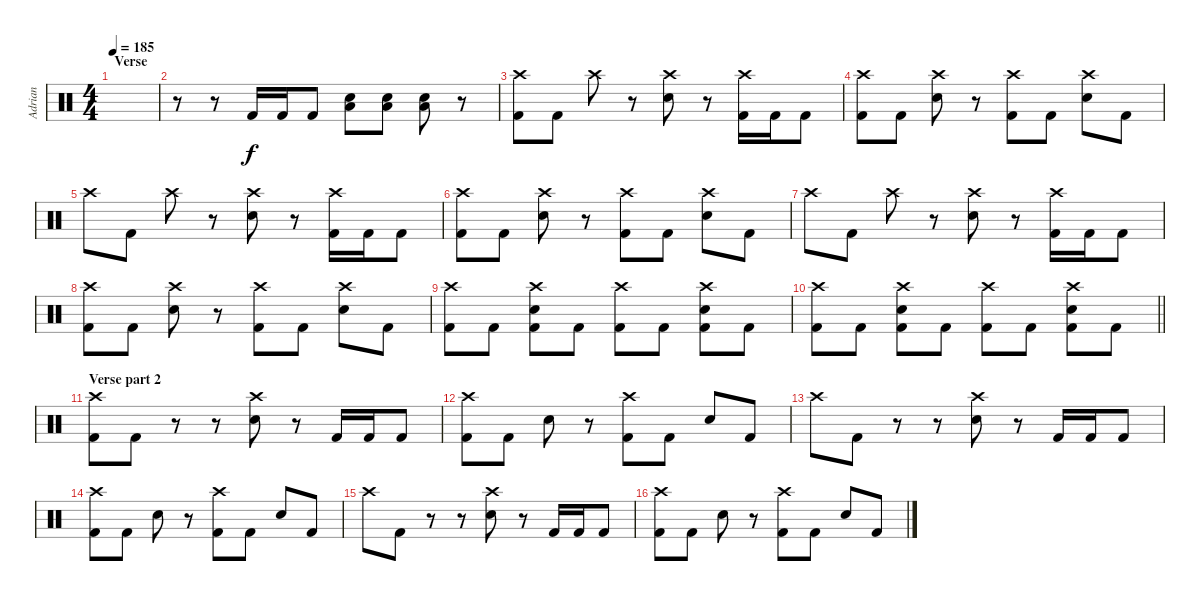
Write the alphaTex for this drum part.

\track ("Adrian" "Adrian") {instrument percussion}
\staff {score}
\articulation defaults
\ts (4 4)
\section ("" "Verse")
\tempo 185
\clef neutral
\ks c
|
r.8 r.8 "Kick (hit) 2".16 "Kick (hit) 2".16 "Kick (hit) 2".8 ("Low Floor Tom (hit)" "Snare (hit) 2").8 ("Low Floor Tom (hit)" "Snare (hit) 2").8 ("Low Floor Tom (hit)" "Snare (hit) 2").8 r.8 |
("Crash high (hit)" "Kick (hit) 2").8 "Kick (hit) 2".8 "Crash high (hit)".8 r.8 ("Crash high (hit)" "Snare (hit) 2").8 r.8 ("Crash high (hit)" "Kick (hit) 2").16 "Kick (hit) 2".16 "Kick (hit) 2".8 |
("Crash high (hit)" "Kick (hit) 2").8 "Kick (hit) 2".8 ("Crash high (hit)" "Snare (hit) 2").8 r.8 ("Crash high (hit)" "Kick (hit) 2").8 "Kick (hit) 2".8 ("Crash high (hit)" "Snare (hit) 2").8 "Kick (hit) 2".8 |
"Crash high (hit)".8 "Kick (hit) 2".8 "Crash high (hit)".8 r.8 ("Crash high (hit)" "Snare (hit) 2").8 r.8 ("Crash high (hit)" "Kick (hit) 2").16 "Kick (hit) 2".16 "Kick (hit) 2".8 |
("Crash high (hit)" "Kick (hit) 2").8 "Kick (hit) 2".8 ("Crash high (hit)" "Snare (hit) 2").8 r.8 ("Crash high (hit)" "Kick (hit) 2").8 "Kick (hit) 2".8 ("Crash high (hit)" "Snare (hit) 2").8 "Kick (hit) 2".8 |
"Crash high (hit)".8 "Kick (hit) 2".8 "Crash high (hit)".8 r.8 ("Crash high (hit)" "Snare (hit) 2").8 r.8 ("Crash high (hit)" "Kick (hit) 2").16 "Kick (hit) 2".16 "Kick (hit) 2".8 |
("Crash high (hit)" "Kick (hit) 2").8 "Kick (hit) 2".8 ("Crash high (hit)" "Snare (hit) 2").8 r.8 ("Crash high (hit)" "Kick (hit) 2").8 "Kick (hit) 2".8 ("Crash high (hit)" "Snare (hit) 2").8 "Kick (hit) 2".8 |
("Crash high (hit)" "Kick (hit) 2").8 "Kick (hit) 2".8 ("Crash high (hit)" "Snare (hit) 2" "Kick (hit) 2").8 "Kick (hit) 2".8 ("Crash high (hit)" "Kick (hit) 2").8 "Kick (hit) 2".8 ("Crash high (hit)" "Snare (hit) 2" "Kick (hit) 2").8 "Kick (hit) 2".8 |
\barLineRight lightlight
("Crash high (hit)" "Kick (hit) 2").8 "Kick (hit) 2".8 ("Crash high (hit)" "Snare (hit) 2" "Kick (hit) 2").8 "Kick (hit) 2".8 ("Crash high (hit)" "Kick (hit) 2").8 "Kick (hit) 2".8 ("Crash high (hit)" "Snare (hit) 2" "Kick (hit) 2").8 "Kick (hit) 2".8 |
\section ("" "Verse part 2")
("Crash high (hit)" "Kick (hit) 2").8 "Kick (hit) 2".8 r.8 r.8 ("Crash high (hit)" "Snare (hit) 2").8 r.8 "Kick (hit) 2".16 "Kick (hit) 2".16 "Kick (hit) 2".8 |
("Crash high (hit)" "Kick (hit) 2").8 "Kick (hit) 2".8 "Snare (hit) 2".8 r.8 ("Crash high (hit)" "Kick (hit) 2").8 "Kick (hit) 2".8 "Snare (hit) 2".8 "Kick (hit) 2".8 |
"Crash high (hit)".8 "Kick (hit) 2".8 r.8 r.8 ("Crash high (hit)" "Snare (hit) 2").8 r.8 "Kick (hit) 2".16 "Kick (hit) 2".16 "Kick (hit) 2".8 |
("Crash high (hit)" "Kick (hit) 2").8 "Kick (hit) 2".8 "Snare (hit) 2".8 r.8 ("Crash high (hit)" "Kick (hit) 2").8 "Kick (hit) 2".8 "Snare (hit) 2".8 "Kick (hit) 2".8 |
"Crash high (hit)".8 "Kick (hit) 2".8 r.8 r.8 ("Crash high (hit)" "Snare (hit) 2").8 r.8 "Kick (hit) 2".16 "Kick (hit) 2".16 "Kick (hit) 2".8 |
("Crash high (hit)" "Kick (hit) 2").8 "Kick (hit) 2".8 "Snare (hit) 2".8 r.8 ("Crash high (hit)" "Kick (hit) 2").8 "Kick (hit) 2".8 "Snare (hit) 2".8 "Kick (hit) 2".8
